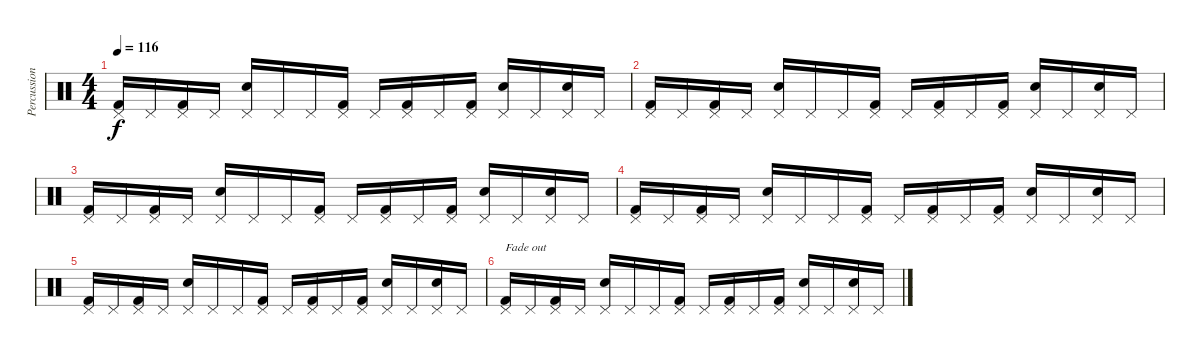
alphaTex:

\track ("Percussions" "Percussion") {instrument percussion}
\staff {score}
\articulation defaults
\ts (4 4)
\tempo 116
\clef neutral
\ks c
("Pedal Hi-Hat (hit)" "Kick (hit) 2").16{dy f} "Pedal Hi-Hat (hit)".16 ("Pedal Hi-Hat (hit)" "Kick (hit) 2").16 "Pedal Hi-Hat (hit)".16 ("Pedal Hi-Hat (hit)" "Snare (hit) 2").16 "Pedal Hi-Hat (hit)".16 "Pedal Hi-Hat (hit)".16 ("Pedal Hi-Hat (hit)" "Kick (hit) 2").16 "Pedal Hi-Hat (hit)".16 ("Pedal Hi-Hat (hit)" "Kick (hit) 2").16 "Pedal Hi-Hat (hit)".16 ("Pedal Hi-Hat (hit)" "Kick (hit) 2").16 ("Pedal Hi-Hat (hit)" "Snare (hit) 2").16 "Pedal Hi-Hat (hit)".16 ("Pedal Hi-Hat (hit)" "Snare (hit) 2").16 "Pedal Hi-Hat (hit)".16 |
("Pedal Hi-Hat (hit)" "Kick (hit) 2").16 "Pedal Hi-Hat (hit)".16 ("Pedal Hi-Hat (hit)" "Kick (hit) 2").16 "Pedal Hi-Hat (hit)".16 ("Pedal Hi-Hat (hit)" "Snare (hit) 2").16 "Pedal Hi-Hat (hit)".16 "Pedal Hi-Hat (hit)".16 ("Pedal Hi-Hat (hit)" "Kick (hit) 2").16 "Pedal Hi-Hat (hit)".16 ("Pedal Hi-Hat (hit)" "Kick (hit) 2").16 "Pedal Hi-Hat (hit)".16 ("Pedal Hi-Hat (hit)" "Kick (hit) 2").16 ("Pedal Hi-Hat (hit)" "Snare (hit) 2").16 "Pedal Hi-Hat (hit)".16 ("Pedal Hi-Hat (hit)" "Snare (hit) 2").16 "Pedal Hi-Hat (hit)".16 |
("Pedal Hi-Hat (hit)" "Kick (hit) 2").16 "Pedal Hi-Hat (hit)".16 ("Pedal Hi-Hat (hit)" "Kick (hit) 2").16 "Pedal Hi-Hat (hit)".16 ("Pedal Hi-Hat (hit)" "Snare (hit) 2").16 "Pedal Hi-Hat (hit)".16 "Pedal Hi-Hat (hit)".16 ("Pedal Hi-Hat (hit)" "Kick (hit) 2").16 "Pedal Hi-Hat (hit)".16 ("Pedal Hi-Hat (hit)" "Kick (hit) 2").16 "Pedal Hi-Hat (hit)".16 ("Pedal Hi-Hat (hit)" "Kick (hit) 2").16 ("Pedal Hi-Hat (hit)" "Snare (hit) 2").16 "Pedal Hi-Hat (hit)".16 ("Pedal Hi-Hat (hit)" "Snare (hit) 2").16 "Pedal Hi-Hat (hit)".16 |
("Pedal Hi-Hat (hit)" "Kick (hit) 2").16 "Pedal Hi-Hat (hit)".16 ("Pedal Hi-Hat (hit)" "Kick (hit) 2").16 "Pedal Hi-Hat (hit)".16 ("Pedal Hi-Hat (hit)" "Snare (hit) 2").16 "Pedal Hi-Hat (hit)".16 "Pedal Hi-Hat (hit)".16 ("Pedal Hi-Hat (hit)" "Kick (hit) 2").16 "Pedal Hi-Hat (hit)".16 ("Pedal Hi-Hat (hit)" "Kick (hit) 2").16 "Pedal Hi-Hat (hit)".16 ("Pedal Hi-Hat (hit)" "Kick (hit) 2").16 ("Pedal Hi-Hat (hit)" "Snare (hit) 2").16 "Pedal Hi-Hat (hit)".16 ("Pedal Hi-Hat (hit)" "Snare (hit) 2").16 "Pedal Hi-Hat (hit)".16 |
("Pedal Hi-Hat (hit)" "Kick (hit) 2").16 "Pedal Hi-Hat (hit)".16 ("Pedal Hi-Hat (hit)" "Kick (hit) 2").16 "Pedal Hi-Hat (hit)".16 ("Pedal Hi-Hat (hit)" "Snare (hit) 2").16 "Pedal Hi-Hat (hit)".16 "Pedal Hi-Hat (hit)".16 ("Pedal Hi-Hat (hit)" "Kick (hit) 2").16 "Pedal Hi-Hat (hit)".16 ("Pedal Hi-Hat (hit)" "Kick (hit) 2").16 "Pedal Hi-Hat (hit)".16 ("Pedal Hi-Hat (hit)" "Kick (hit) 2").16 ("Pedal Hi-Hat (hit)" "Snare (hit) 2").16 "Pedal Hi-Hat (hit)".16 ("Pedal Hi-Hat (hit)" "Snare (hit) 2").16 "Pedal Hi-Hat (hit)".16 |
("Pedal Hi-Hat (hit)" "Kick (hit) 2").16{txt "Fade out"} "Pedal Hi-Hat (hit)".16 ("Pedal Hi-Hat (hit)" "Kick (hit) 2").16 "Pedal Hi-Hat (hit)".16 ("Pedal Hi-Hat (hit)" "Snare (hit) 2").16 "Pedal Hi-Hat (hit)".16 "Pedal Hi-Hat (hit)".16 ("Pedal Hi-Hat (hit)" "Kick (hit) 2").16 "Pedal Hi-Hat (hit)".16 ("Pedal Hi-Hat (hit)" "Kick (hit) 2").16 "Pedal Hi-Hat (hit)".16 ("Pedal Hi-Hat (hit)" "Kick (hit) 2").16 ("Pedal Hi-Hat (hit)" "Snare (hit) 2").16 "Pedal Hi-Hat (hit)".16 ("Pedal Hi-Hat (hit)" "Snare (hit) 2").16 "Pedal Hi-Hat (hit)".16
